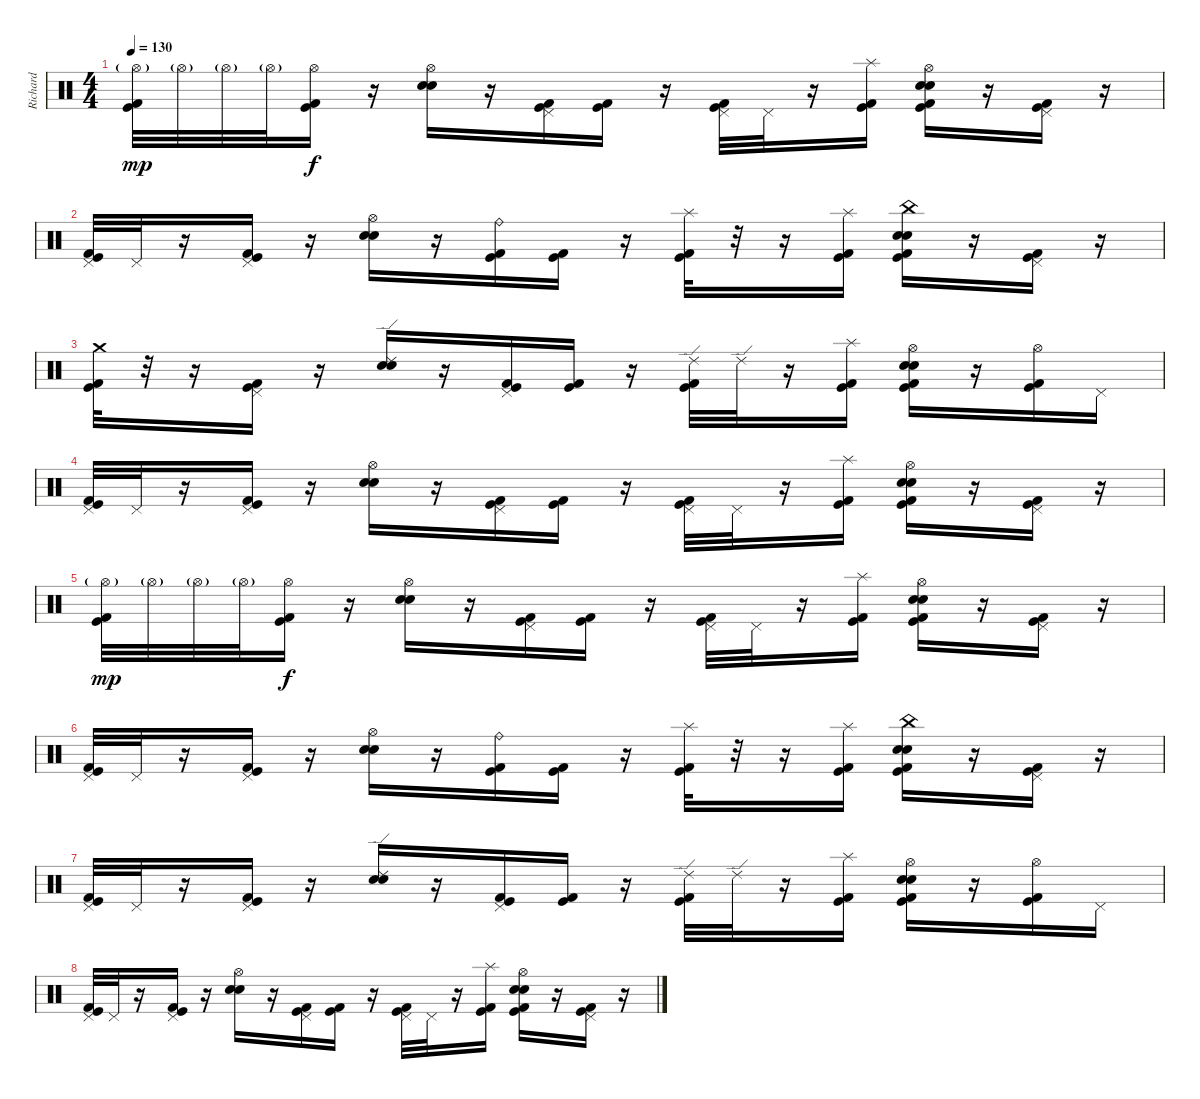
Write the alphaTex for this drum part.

\track ("Richard" "Richard") {instrument percussion}
\staff {score}
\articulation defaults
\ts (4 4)
\tempo 130
\clef neutral
\ks c
("Hi-Hat (open)"{g} "Kick (hit)" "Kick (hit) 2").32{dy mp} "Hi-Hat (open)"{g}.32 "Hi-Hat (open)"{g}.32 "Hi-Hat (open)"{g}.32 ("Hi-Hat (open)" "Kick (hit)" "Kick (hit) 2").16{dy f} r.16 ("Hi-Hat (open)" "Snare (hit) 2" "Electric Snare (hit)").16 r.16 ("Pedal Hi-Hat (hit)" "Kick (hit)" "Kick (hit) 2").16 ("Kick (hit)" "Kick (hit) 2").16 r.16 ("Pedal Hi-Hat (hit)" "Kick (hit)" "Kick (hit) 2").32 "Pedal Hi-Hat (hit)".32 r.16 ("Splash (hit)" "Kick (hit)" "Kick (hit) 2").16 ("Hi-Hat (open)" "Snare (hit) 2" "Electric Snare (hit)" "Kick (hit)" "Kick (hit) 2").16 r.16 ("Pedal Hi-Hat (hit)" "Kick (hit)" "Kick (hit) 2").16 r.16 |
("Pedal Hi-Hat (hit)" "Kick (hit)" "Kick (hit) 2").32 "Pedal Hi-Hat (hit)".32 r.16 ("Pedal Hi-Hat (hit)" "Kick (hit)" "Kick (hit) 2").16 r.16 ("Hi-Hat (open)" "Snare (hit) 2" "Electric Snare (hit)").16 r.16 ("Ride (bell)" "Kick (hit)" "Kick (hit) 2").16 ("Kick (hit)" "Kick (hit) 2").16 r.16 ("Splash (hit)" "Kick (hit)" "Kick (hit) 2").32 r.32 r.16 ("Splash (hit)" "Kick (hit)" "Kick (hit) 2").16 ("China (hit)" "Snare (hit) 2" "Electric Snare (hit)" "Kick (hit)" "Kick (hit) 2").16 r.16 ("Pedal Hi-Hat (hit)" "Kick (hit)" "Kick (hit) 2").16 r.16 |
("Crash medium (hit)" "Kick (hit)" "Kick (hit) 2").32 r.32 r.16 ("Pedal Hi-Hat (hit)" "Kick (hit)" "Kick (hit) 2").16 r.16 ("Ride (edge) 2" "Snare (hit) 2" "Electric Snare (hit)").16 r.16 ("Pedal Hi-Hat (hit)" "Kick (hit)" "Kick (hit) 2").16 ("Kick (hit)" "Kick (hit) 2").16 r.16 ("Ride (edge) 2" "Kick (hit)" "Kick (hit) 2").32 "Ride (edge) 2".32 r.16 ("Splash (hit)" "Kick (hit)" "Kick (hit) 2").16 ("Hi-Hat (open)" "Snare (hit) 2" "Electric Snare (hit)" "Kick (hit)" "Kick (hit) 2").16 r.16 ("Hi-Hat (open)" "Kick (hit)" "Kick (hit) 2").16 "Pedal Hi-Hat (hit)".16 |
("Pedal Hi-Hat (hit)" "Kick (hit)" "Kick (hit) 2").32 "Pedal Hi-Hat (hit)".32 r.16 ("Pedal Hi-Hat (hit)" "Kick (hit)" "Kick (hit) 2").16 r.16 ("Hi-Hat (open)" "Snare (hit) 2" "Electric Snare (hit)").16 r.16 ("Pedal Hi-Hat (hit)" "Kick (hit)" "Kick (hit) 2").16 ("Kick (hit)" "Kick (hit) 2").16 r.16 ("Pedal Hi-Hat (hit)" "Kick (hit)" "Kick (hit) 2").32 "Pedal Hi-Hat (hit)".32 r.16 ("Splash (hit)" "Kick (hit)" "Kick (hit) 2").16 ("Hi-Hat (open)" "Snare (hit) 2" "Electric Snare (hit)" "Kick (hit)" "Kick (hit) 2").16 r.16 ("Pedal Hi-Hat (hit)" "Kick (hit)" "Kick (hit) 2").16 r.16 |
("Hi-Hat (open)"{g} "Kick (hit)" "Kick (hit) 2").32{dy mp} "Hi-Hat (open)"{g}.32 "Hi-Hat (open)"{g}.32 "Hi-Hat (open)"{g}.32 ("Hi-Hat (open)" "Kick (hit)" "Kick (hit) 2").16{dy f} r.16 ("Hi-Hat (open)" "Snare (hit) 2" "Electric Snare (hit)").16 r.16 ("Pedal Hi-Hat (hit)" "Kick (hit)" "Kick (hit) 2").16 ("Kick (hit)" "Kick (hit) 2").16 r.16 ("Pedal Hi-Hat (hit)" "Kick (hit)" "Kick (hit) 2").32 "Pedal Hi-Hat (hit)".32 r.16 ("Splash (hit)" "Kick (hit)" "Kick (hit) 2").16 ("Hi-Hat (open)" "Snare (hit) 2" "Electric Snare (hit)" "Kick (hit)" "Kick (hit) 2").16 r.16 ("Pedal Hi-Hat (hit)" "Kick (hit)" "Kick (hit) 2").16 r.16 |
("Pedal Hi-Hat (hit)" "Kick (hit)" "Kick (hit) 2").32 "Pedal Hi-Hat (hit)".32 r.16 ("Pedal Hi-Hat (hit)" "Kick (hit)" "Kick (hit) 2").16 r.16 ("Hi-Hat (open)" "Snare (hit) 2" "Electric Snare (hit)").16 r.16 ("Ride (bell)" "Kick (hit)" "Kick (hit) 2").16 ("Kick (hit)" "Kick (hit) 2").16 r.16 ("Splash (hit)" "Kick (hit)" "Kick (hit) 2").32 r.32 r.16 ("Splash (hit)" "Kick (hit)" "Kick (hit) 2").16 ("China (hit)" "Snare (hit) 2" "Electric Snare (hit)" "Kick (hit)" "Kick (hit) 2").16 r.16 ("Pedal Hi-Hat (hit)" "Kick (hit)" "Kick (hit) 2").16 r.16 |
("Pedal Hi-Hat (hit)" "Kick (hit)" "Kick (hit) 2").32 "Pedal Hi-Hat (hit)".32 r.16 ("Pedal Hi-Hat (hit)" "Kick (hit)" "Kick (hit) 2").16 r.16 ("Ride (edge) 2" "Snare (hit) 2" "Electric Snare (hit)").16 r.16 ("Pedal Hi-Hat (hit)" "Kick (hit)" "Kick (hit) 2").16 ("Kick (hit)" "Kick (hit) 2").16 r.16 ("Ride (edge) 2" "Kick (hit)" "Kick (hit) 2").32 "Ride (edge) 2".32 r.16 ("Splash (hit)" "Kick (hit)" "Kick (hit) 2").16 ("Hi-Hat (open)" "Snare (hit) 2" "Electric Snare (hit)" "Kick (hit)" "Kick (hit) 2").16 r.16 ("Hi-Hat (open)" "Kick (hit)" "Kick (hit) 2").16 "Pedal Hi-Hat (hit)".16 |
("Pedal Hi-Hat (hit)" "Kick (hit)" "Kick (hit) 2").32 "Pedal Hi-Hat (hit)".32 r.16 ("Pedal Hi-Hat (hit)" "Kick (hit)" "Kick (hit) 2").16 r.16 ("Hi-Hat (open)" "Snare (hit) 2" "Electric Snare (hit)").16 r.16 ("Pedal Hi-Hat (hit)" "Kick (hit)" "Kick (hit) 2").16 ("Kick (hit)" "Kick (hit) 2").16 r.16 ("Pedal Hi-Hat (hit)" "Kick (hit)" "Kick (hit) 2").32 "Pedal Hi-Hat (hit)".32 r.16 ("Splash (hit)" "Kick (hit)" "Kick (hit) 2").16 ("Hi-Hat (open)" "Snare (hit) 2" "Electric Snare (hit)" "Kick (hit)" "Kick (hit) 2").16 r.16 ("Pedal Hi-Hat (hit)" "Kick (hit)" "Kick (hit) 2").16 r.16
